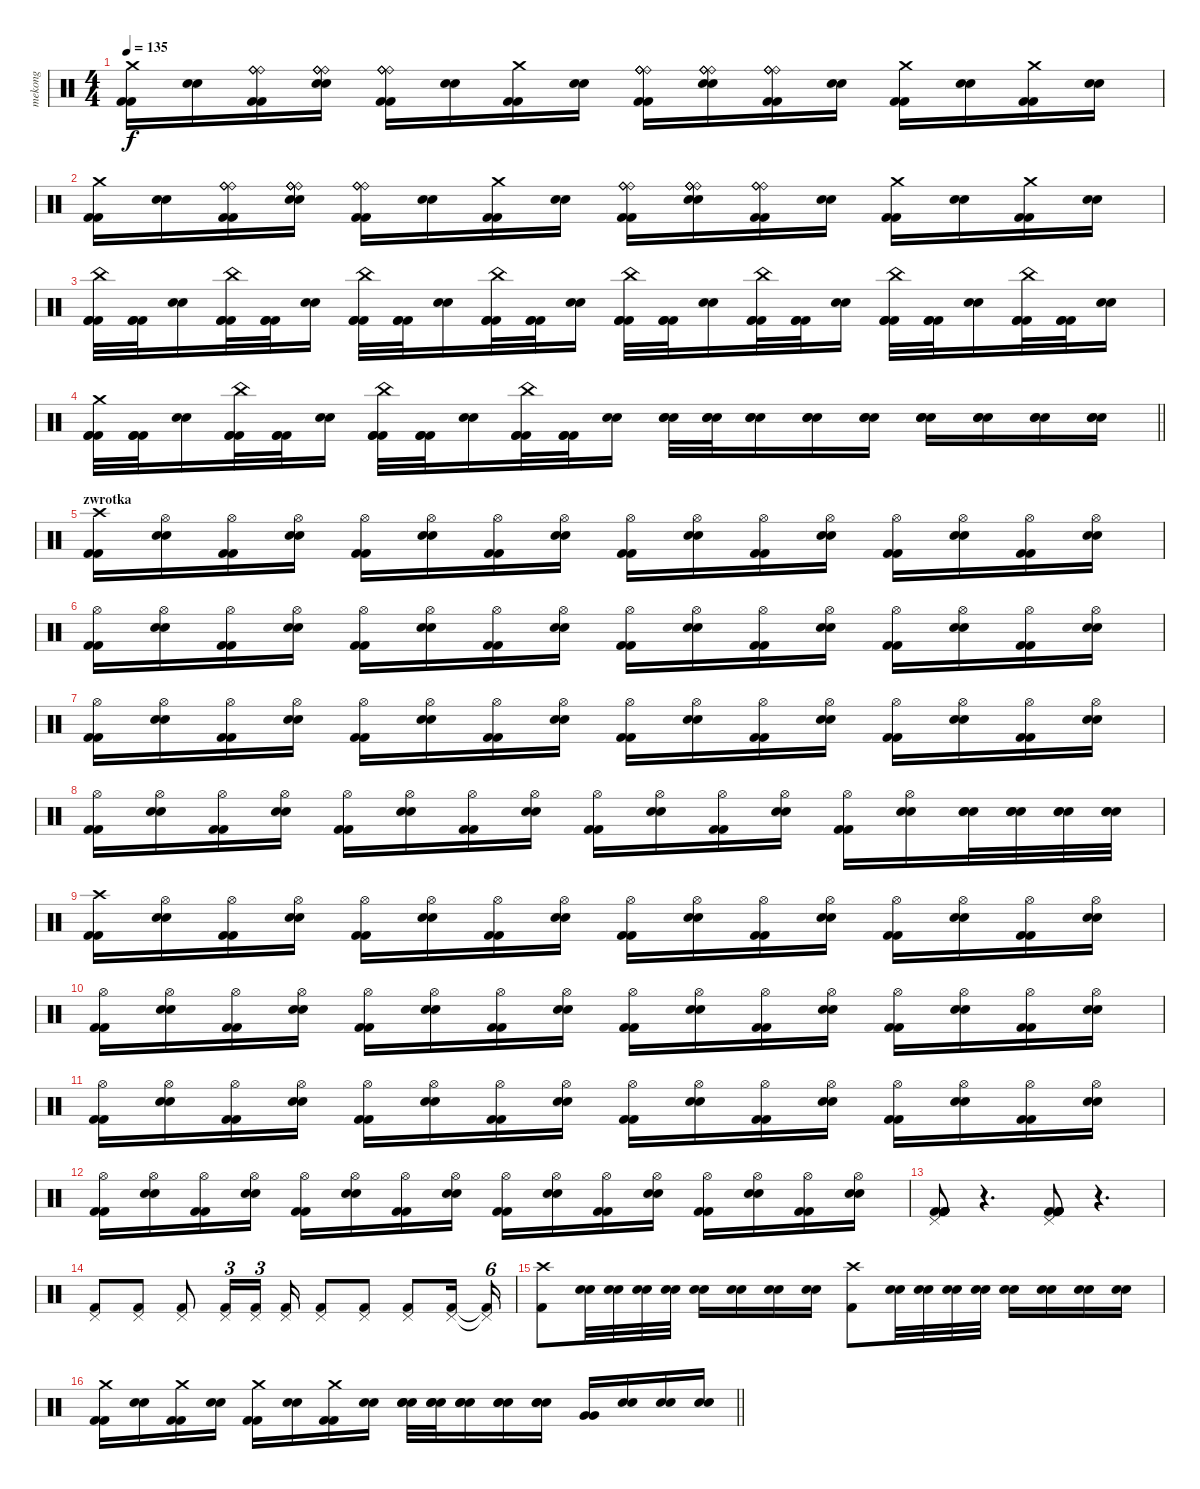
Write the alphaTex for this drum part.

\track ("mekong" "mekong") {instrument percussion}
\staff {score}
\articulation defaults
\ts (4 4)
\tempo 135
\clef neutral
\ks c
("Crash medium (hit)" "Kick (hit) 2" "Kick (hit) 2").16{dy f} ("Electric Snare (hit)" "Electric Snare (hit)").16 ("Ride (bell)" "Ride (bell)" "Ride (bell)" "Ride (bell)" "Kick (hit) 2" "Kick (hit) 2").16 ("Ride (bell)" "Ride (bell)" "Ride (bell)" "Ride (bell)" "Electric Snare (hit)" "Electric Snare (hit)").16 ("Ride (bell)" "Ride (bell)" "Ride (bell)" "Ride (bell)" "Kick (hit) 2" "Kick (hit) 2").16 ("Electric Snare (hit)" "Electric Snare (hit)").16 ("Crash medium (hit)" "Kick (hit) 2" "Kick (hit) 2").16 ("Electric Snare (hit)" "Electric Snare (hit)").16 ("Ride (bell)" "Ride (bell)" "Ride (bell)" "Ride (bell)" "Kick (hit) 2" "Kick (hit) 2").16 ("Ride (bell)" "Ride (bell)" "Ride (bell)" "Ride (bell)" "Electric Snare (hit)" "Electric Snare (hit)").16 ("Ride (bell)" "Ride (bell)" "Ride (bell)" "Ride (bell)" "Kick (hit) 2" "Kick (hit) 2").16 ("Electric Snare (hit)" "Electric Snare (hit)").16 ("Crash medium (hit)" "Kick (hit) 2" "Kick (hit) 2").16 ("Electric Snare (hit)" "Electric Snare (hit)").16 ("Crash medium (hit)" "Kick (hit) 2" "Kick (hit) 2").16 ("Electric Snare (hit)" "Electric Snare (hit)").16 |
("Crash medium (hit)" "Kick (hit) 2" "Kick (hit) 2").16 ("Electric Snare (hit)" "Electric Snare (hit)").16 ("Ride (bell)" "Ride (bell)" "Ride (bell)" "Ride (bell)" "Kick (hit) 2" "Kick (hit) 2").16 ("Ride (bell)" "Ride (bell)" "Ride (bell)" "Ride (bell)" "Electric Snare (hit)" "Electric Snare (hit)").16 ("Ride (bell)" "Ride (bell)" "Ride (bell)" "Ride (bell)" "Kick (hit) 2" "Kick (hit) 2").16 ("Electric Snare (hit)" "Electric Snare (hit)").16 ("Crash medium (hit)" "Kick (hit) 2" "Kick (hit) 2").16 ("Electric Snare (hit)" "Electric Snare (hit)").16 ("Ride (bell)" "Ride (bell)" "Ride (bell)" "Ride (bell)" "Kick (hit) 2" "Kick (hit) 2").16 ("Ride (bell)" "Ride (bell)" "Ride (bell)" "Ride (bell)" "Electric Snare (hit)" "Electric Snare (hit)").16 ("Ride (bell)" "Ride (bell)" "Ride (bell)" "Ride (bell)" "Kick (hit) 2" "Kick (hit) 2").16 ("Electric Snare (hit)" "Electric Snare (hit)").16 ("Crash medium (hit)" "Kick (hit) 2" "Kick (hit) 2").16 ("Electric Snare (hit)" "Electric Snare (hit)").16 ("Crash medium (hit)" "Kick (hit) 2" "Kick (hit) 2").16 ("Electric Snare (hit)" "Electric Snare (hit)").16 |
("China (hit)" "Kick (hit) 2" "Kick (hit) 2" "Kick (hit) 2").32 ("Kick (hit) 2" "Kick (hit) 2" "Kick (hit) 2").32 ("Electric Snare (hit)" "Electric Snare (hit)").16 ("China (hit)" "Kick (hit) 2" "Kick (hit) 2" "Kick (hit) 2").32 ("Kick (hit) 2" "Kick (hit) 2" "Kick (hit) 2").32 ("Electric Snare (hit)" "Electric Snare (hit)").16 ("China (hit)" "Kick (hit) 2" "Kick (hit) 2" "Kick (hit) 2").32 ("Kick (hit) 2" "Kick (hit) 2" "Kick (hit) 2").32 ("Electric Snare (hit)" "Electric Snare (hit)").16 ("China (hit)" "Kick (hit) 2" "Kick (hit) 2" "Kick (hit) 2").32 ("Kick (hit) 2" "Kick (hit) 2" "Kick (hit) 2").32 ("Electric Snare (hit)" "Electric Snare (hit)").16 ("China (hit)" "Kick (hit) 2" "Kick (hit) 2" "Kick (hit) 2").32 ("Kick (hit) 2" "Kick (hit) 2" "Kick (hit) 2").32 ("Electric Snare (hit)" "Electric Snare (hit)").16 ("China (hit)" "Kick (hit) 2" "Kick (hit) 2" "Kick (hit) 2").32 ("Kick (hit) 2" "Kick (hit) 2" "Kick (hit) 2").32 ("Electric Snare (hit)" "Electric Snare (hit)").16 ("China (hit)" "Kick (hit) 2" "Kick (hit) 2" "Kick (hit) 2").32 ("Kick (hit) 2" "Kick (hit) 2" "Kick (hit) 2").32 ("Electric Snare (hit)" "Electric Snare (hit)").16 ("China (hit)" "Kick (hit) 2" "Kick (hit) 2" "Kick (hit) 2").32 ("Kick (hit) 2" "Kick (hit) 2" "Kick (hit) 2").32 ("Electric Snare (hit)" "Electric Snare (hit)").16 |
\barLineRight lightlight
("Crash medium (hit)" "Kick (hit) 2" "Kick (hit) 2" "Kick (hit) 2").32 ("Kick (hit) 2" "Kick (hit) 2" "Kick (hit) 2").32 ("Electric Snare (hit)" "Electric Snare (hit)").16 ("China (hit)" "Kick (hit) 2" "Kick (hit) 2" "Kick (hit) 2").32 ("Kick (hit) 2" "Kick (hit) 2" "Kick (hit) 2").32 ("Electric Snare (hit)" "Electric Snare (hit)").16 ("China (hit)" "Kick (hit) 2" "Kick (hit) 2" "Kick (hit) 2").32 ("Kick (hit) 2" "Kick (hit) 2" "Kick (hit) 2").32 ("Electric Snare (hit)" "Electric Snare (hit)").16 ("China (hit)" "Kick (hit) 2" "Kick (hit) 2" "Kick (hit) 2").32 ("Kick (hit) 2" "Kick (hit) 2" "Kick (hit) 2").32 ("Electric Snare (hit)" "Electric Snare (hit)").16 ("Electric Snare (hit)" "Electric Snare (hit)" "Electric Snare (hit)").32 ("Electric Snare (hit)" "Electric Snare (hit)" "Electric Snare (hit)").32 ("Electric Snare (hit)" "Electric Snare (hit)" "Electric Snare (hit)").16 ("Electric Snare (hit)" "Electric Snare (hit)" "Electric Snare (hit)").16 ("Electric Snare (hit)" "Electric Snare (hit)" "Electric Snare (hit)").16 ("Electric Snare (hit)" "Electric Snare (hit)" "Electric Snare (hit)").16 ("Electric Snare (hit)" "Electric Snare (hit)" "Electric Snare (hit)").16 ("Electric Snare (hit)" "Electric Snare (hit)" "Electric Snare (hit)").16 ("Electric Snare (hit)" "Electric Snare (hit)" "Electric Snare (hit)").16 |
\section ("" "zwrotka")
("Crash high (hit)" "Kick (hit) 2" "Kick (hit) 2").16 ("Hi-Hat (open)" "Electric Snare (hit)" "Electric Snare (hit)").16 ("Hi-Hat (open)" "Kick (hit) 2" "Kick (hit) 2").16 ("Hi-Hat (open)" "Electric Snare (hit)" "Electric Snare (hit)").16 ("Hi-Hat (open)" "Kick (hit) 2" "Kick (hit) 2").16 ("Hi-Hat (open)" "Electric Snare (hit)" "Electric Snare (hit)").16 ("Hi-Hat (open)" "Kick (hit) 2" "Kick (hit) 2").16 ("Hi-Hat (open)" "Electric Snare (hit)" "Electric Snare (hit)").16 ("Hi-Hat (open)" "Kick (hit) 2" "Kick (hit) 2").16 ("Hi-Hat (open)" "Electric Snare (hit)" "Electric Snare (hit)").16 ("Hi-Hat (open)" "Kick (hit) 2" "Kick (hit) 2").16 ("Hi-Hat (open)" "Electric Snare (hit)" "Electric Snare (hit)").16 ("Hi-Hat (open)" "Kick (hit) 2" "Kick (hit) 2").16 ("Hi-Hat (open)" "Electric Snare (hit)" "Electric Snare (hit)").16 ("Hi-Hat (open)" "Kick (hit) 2" "Kick (hit) 2").16 ("Hi-Hat (open)" "Electric Snare (hit)" "Electric Snare (hit)").16 |
("Hi-Hat (open)" "Kick (hit) 2" "Kick (hit) 2").16 ("Hi-Hat (open)" "Electric Snare (hit)" "Electric Snare (hit)").16 ("Hi-Hat (open)" "Kick (hit) 2" "Kick (hit) 2").16 ("Hi-Hat (open)" "Electric Snare (hit)" "Electric Snare (hit)").16 ("Hi-Hat (open)" "Kick (hit) 2" "Kick (hit) 2").16 ("Hi-Hat (open)" "Electric Snare (hit)" "Electric Snare (hit)").16 ("Hi-Hat (open)" "Kick (hit) 2" "Kick (hit) 2").16 ("Hi-Hat (open)" "Electric Snare (hit)" "Electric Snare (hit)").16 ("Hi-Hat (open)" "Kick (hit) 2" "Kick (hit) 2").16 ("Hi-Hat (open)" "Electric Snare (hit)" "Electric Snare (hit)").16 ("Hi-Hat (open)" "Kick (hit) 2" "Kick (hit) 2").16 ("Hi-Hat (open)" "Electric Snare (hit)" "Electric Snare (hit)").16 ("Hi-Hat (open)" "Kick (hit) 2" "Kick (hit) 2").16 ("Hi-Hat (open)" "Electric Snare (hit)" "Electric Snare (hit)").16 ("Hi-Hat (open)" "Kick (hit) 2" "Kick (hit) 2").16 ("Hi-Hat (open)" "Electric Snare (hit)" "Electric Snare (hit)").16 |
("Hi-Hat (open)" "Kick (hit) 2" "Kick (hit) 2").16 ("Hi-Hat (open)" "Electric Snare (hit)" "Electric Snare (hit)").16 ("Hi-Hat (open)" "Kick (hit) 2" "Kick (hit) 2").16 ("Hi-Hat (open)" "Electric Snare (hit)" "Electric Snare (hit)").16 ("Hi-Hat (open)" "Kick (hit) 2" "Kick (hit) 2").16 ("Hi-Hat (open)" "Electric Snare (hit)" "Electric Snare (hit)").16 ("Hi-Hat (open)" "Kick (hit) 2" "Kick (hit) 2").16 ("Hi-Hat (open)" "Electric Snare (hit)" "Electric Snare (hit)").16 ("Hi-Hat (open)" "Kick (hit) 2" "Kick (hit) 2").16 ("Hi-Hat (open)" "Electric Snare (hit)" "Electric Snare (hit)").16 ("Hi-Hat (open)" "Kick (hit) 2" "Kick (hit) 2").16 ("Hi-Hat (open)" "Electric Snare (hit)" "Electric Snare (hit)").16 ("Hi-Hat (open)" "Kick (hit) 2" "Kick (hit) 2").16 ("Hi-Hat (open)" "Electric Snare (hit)" "Electric Snare (hit)").16 ("Hi-Hat (open)" "Kick (hit) 2" "Kick (hit) 2").16 ("Hi-Hat (open)" "Electric Snare (hit)" "Electric Snare (hit)").16 |
("Hi-Hat (open)" "Kick (hit) 2" "Kick (hit) 2").16 ("Hi-Hat (open)" "Electric Snare (hit)" "Electric Snare (hit)").16 ("Hi-Hat (open)" "Kick (hit) 2" "Kick (hit) 2").16 ("Hi-Hat (open)" "Electric Snare (hit)" "Electric Snare (hit)").16 ("Hi-Hat (open)" "Kick (hit) 2" "Kick (hit) 2").16 ("Hi-Hat (open)" "Electric Snare (hit)" "Electric Snare (hit)").16 ("Hi-Hat (open)" "Kick (hit) 2" "Kick (hit) 2").16 ("Hi-Hat (open)" "Electric Snare (hit)" "Electric Snare (hit)").16 ("Hi-Hat (open)" "Kick (hit) 2" "Kick (hit) 2").16 ("Hi-Hat (open)" "Electric Snare (hit)" "Electric Snare (hit)").16 ("Hi-Hat (open)" "Kick (hit) 2" "Kick (hit) 2").16 ("Hi-Hat (open)" "Electric Snare (hit)" "Electric Snare (hit)").16 ("Hi-Hat (open)" "Kick (hit) 2" "Kick (hit) 2").16 ("Hi-Hat (open)" "Electric Snare (hit)" "Electric Snare (hit)").16 ("Electric Snare (hit)" "Electric Snare (hit)" "Electric Snare (hit)").32 ("Electric Snare (hit)" "Electric Snare (hit)" "Electric Snare (hit)").32 ("Electric Snare (hit)" "Electric Snare (hit)" "Electric Snare (hit)").32 ("Electric Snare (hit)" "Electric Snare (hit)" "Electric Snare (hit)").32 |
("Crash high (hit)" "Kick (hit) 2" "Kick (hit) 2").16 ("Hi-Hat (open)" "Electric Snare (hit)" "Electric Snare (hit)").16 ("Hi-Hat (open)" "Kick (hit) 2" "Kick (hit) 2").16 ("Hi-Hat (open)" "Electric Snare (hit)" "Electric Snare (hit)").16 ("Hi-Hat (open)" "Kick (hit) 2" "Kick (hit) 2").16 ("Hi-Hat (open)" "Electric Snare (hit)" "Electric Snare (hit)").16 ("Hi-Hat (open)" "Kick (hit) 2" "Kick (hit) 2").16 ("Hi-Hat (open)" "Electric Snare (hit)" "Electric Snare (hit)").16 ("Hi-Hat (open)" "Kick (hit) 2" "Kick (hit) 2").16 ("Hi-Hat (open)" "Electric Snare (hit)" "Electric Snare (hit)").16 ("Hi-Hat (open)" "Kick (hit) 2" "Kick (hit) 2").16 ("Hi-Hat (open)" "Electric Snare (hit)" "Electric Snare (hit)").16 ("Hi-Hat (open)" "Kick (hit) 2" "Kick (hit) 2").16 ("Hi-Hat (open)" "Electric Snare (hit)" "Electric Snare (hit)").16 ("Hi-Hat (open)" "Kick (hit) 2" "Kick (hit) 2").16 ("Hi-Hat (open)" "Electric Snare (hit)" "Electric Snare (hit)").16 |
("Hi-Hat (open)" "Kick (hit) 2" "Kick (hit) 2").16 ("Hi-Hat (open)" "Electric Snare (hit)" "Electric Snare (hit)").16 ("Hi-Hat (open)" "Kick (hit) 2" "Kick (hit) 2").16 ("Hi-Hat (open)" "Electric Snare (hit)" "Electric Snare (hit)").16 ("Hi-Hat (open)" "Kick (hit) 2" "Kick (hit) 2").16 ("Hi-Hat (open)" "Electric Snare (hit)" "Electric Snare (hit)").16 ("Hi-Hat (open)" "Kick (hit) 2" "Kick (hit) 2").16 ("Hi-Hat (open)" "Electric Snare (hit)" "Electric Snare (hit)").16 ("Hi-Hat (open)" "Kick (hit) 2" "Kick (hit) 2").16 ("Hi-Hat (open)" "Electric Snare (hit)" "Electric Snare (hit)").16 ("Hi-Hat (open)" "Kick (hit) 2" "Kick (hit) 2").16 ("Hi-Hat (open)" "Electric Snare (hit)" "Electric Snare (hit)").16 ("Hi-Hat (open)" "Kick (hit) 2" "Kick (hit) 2").16 ("Hi-Hat (open)" "Electric Snare (hit)" "Electric Snare (hit)").16 ("Hi-Hat (open)" "Kick (hit) 2" "Kick (hit) 2").16 ("Hi-Hat (open)" "Electric Snare (hit)" "Electric Snare (hit)").16 |
("Hi-Hat (open)" "Kick (hit) 2" "Kick (hit) 2").16 ("Hi-Hat (open)" "Electric Snare (hit)" "Electric Snare (hit)").16 ("Hi-Hat (open)" "Kick (hit) 2" "Kick (hit) 2").16 ("Hi-Hat (open)" "Electric Snare (hit)" "Electric Snare (hit)").16 ("Hi-Hat (open)" "Kick (hit) 2" "Kick (hit) 2").16 ("Hi-Hat (open)" "Electric Snare (hit)" "Electric Snare (hit)").16 ("Hi-Hat (open)" "Kick (hit) 2" "Kick (hit) 2").16 ("Hi-Hat (open)" "Electric Snare (hit)" "Electric Snare (hit)").16 ("Hi-Hat (open)" "Kick (hit) 2" "Kick (hit) 2").16 ("Hi-Hat (open)" "Electric Snare (hit)" "Electric Snare (hit)").16 ("Hi-Hat (open)" "Kick (hit) 2" "Kick (hit) 2").16 ("Hi-Hat (open)" "Electric Snare (hit)" "Electric Snare (hit)").16 ("Hi-Hat (open)" "Kick (hit) 2" "Kick (hit) 2").16 ("Hi-Hat (open)" "Electric Snare (hit)" "Electric Snare (hit)").16 ("Hi-Hat (open)" "Kick (hit) 2" "Kick (hit) 2").16 ("Hi-Hat (open)" "Electric Snare (hit)" "Electric Snare (hit)").16 |
("Hi-Hat (open)" "Kick (hit) 2" "Kick (hit) 2").16 ("Hi-Hat (open)" "Electric Snare (hit)" "Electric Snare (hit)").16 ("Hi-Hat (open)" "Kick (hit) 2" "Kick (hit) 2").16 ("Hi-Hat (open)" "Electric Snare (hit)" "Electric Snare (hit)").16 ("Hi-Hat (open)" "Kick (hit) 2" "Kick (hit) 2").16 ("Hi-Hat (open)" "Electric Snare (hit)" "Electric Snare (hit)").16 ("Hi-Hat (open)" "Kick (hit) 2" "Kick (hit) 2").16 ("Hi-Hat (open)" "Electric Snare (hit)" "Electric Snare (hit)").16 ("Hi-Hat (open)" "Kick (hit) 2" "Kick (hit) 2").16 ("Hi-Hat (open)" "Electric Snare (hit)" "Electric Snare (hit)").16 ("Hi-Hat (open)" "Kick (hit) 2" "Kick (hit) 2").16 ("Hi-Hat (open)" "Electric Snare (hit)" "Electric Snare (hit)").16 ("Hi-Hat (open)" "Kick (hit) 2" "Kick (hit) 2").16 ("Hi-Hat (open)" "Electric Snare (hit)" "Electric Snare (hit)").16 ("Hi-Hat (open)" "Kick (hit) 2" "Kick (hit) 2").16 ("Hi-Hat (open)" "Electric Snare (hit)" "Electric Snare (hit)").16 |
("Pedal Hi-Hat (hit)" "Kick (hit) 2" "Kick (hit) 2" "Kick (hit) 2" "Kick (hit) 2" "Kick (hit) 2").8 r.4{d} ("Pedal Hi-Hat (hit)" "Kick (hit) 2" "Kick (hit) 2" "Kick (hit) 2" "Kick (hit) 2" "Kick (hit) 2").8 r.4{d} |
("Pedal Hi-Hat (hit)" "Kick (hit) 2").8 ("Pedal Hi-Hat (hit)" "Kick (hit) 2").8 ("Pedal Hi-Hat (hit)" "Kick (hit) 2").8 ("Pedal Hi-Hat (hit)" "Kick (hit) 2").16{tu (3 2)} ("Pedal Hi-Hat (hit)" "Kick (hit) 2").16{tu (3 2)} ("Pedal Hi-Hat (hit)" "Kick (hit) 2").16 ("Pedal Hi-Hat (hit)" "Kick (hit) 2").8 ("Pedal Hi-Hat (hit)" "Kick (hit) 2").8 ("Pedal Hi-Hat (hit)" "Kick (hit) 2").8 ("Pedal Hi-Hat (hit)" "Kick (hit) 2").16 ("Pedal Hi-Hat (hit)"{t} "Kick (hit) 2"{t}).16{tu (6 4)} |
("Kick (hit) 2" "Crash high (hit)").8 ("Electric Snare (hit)" "Electric Snare (hit)").32 ("Electric Snare (hit)" "Electric Snare (hit)").32 ("Electric Snare (hit)" "Electric Snare (hit)").32 ("Electric Snare (hit)" "Electric Snare (hit)").32 ("Electric Snare (hit)" "Electric Snare (hit)").16 ("Electric Snare (hit)" "Electric Snare (hit)").16 ("Electric Snare (hit)" "Electric Snare (hit)").16 ("Electric Snare (hit)" "Electric Snare (hit)").16 ("Kick (hit) 2" "Crash high (hit)").8 ("Electric Snare (hit)" "Electric Snare (hit)").32 ("Electric Snare (hit)" "Electric Snare (hit)").32 ("Electric Snare (hit)" "Electric Snare (hit)").32 ("Electric Snare (hit)" "Electric Snare (hit)").32 ("Electric Snare (hit)" "Electric Snare (hit)").16 ("Electric Snare (hit)" "Electric Snare (hit)").16 ("Electric Snare (hit)" "Electric Snare (hit)").16 ("Electric Snare (hit)" "Electric Snare (hit)").16 |
\barLineRight lightlight
("Crash medium (hit)" "Kick (hit) 2" "Kick (hit) 2").16 ("Electric Snare (hit)" "Electric Snare (hit)").16 ("Crash medium (hit)" "Kick (hit) 2" "Kick (hit) 2").16 ("Electric Snare (hit)" "Electric Snare (hit)").16 ("Crash medium (hit)" "Kick (hit) 2" "Kick (hit) 2").16 ("Electric Snare (hit)" "Electric Snare (hit)").16 ("Crash medium (hit)" "Kick (hit) 2" "Kick (hit) 2").16 ("Electric Snare (hit)" "Electric Snare (hit)").16 ("Electric Snare (hit)" "Electric Snare (hit)" "Electric Snare (hit)").32 ("Electric Snare (hit)" "Electric Snare (hit)" "Electric Snare (hit)").32 ("Electric Snare (hit)" "Electric Snare (hit)" "Electric Snare (hit)").16 ("Electric Snare (hit)" "Electric Snare (hit)" "Electric Snare (hit)").16 ("Electric Snare (hit)" "Electric Snare (hit)" "Electric Snare (hit)").16 ("Very Low Tom (hit)" "Very Low Tom (hit)").16 ("Electric Snare (hit)" "Electric Snare (hit)").16 ("Electric Snare (hit)" "Electric Snare (hit)").16 ("Electric Snare (hit)" "Electric Snare (hit)").16
